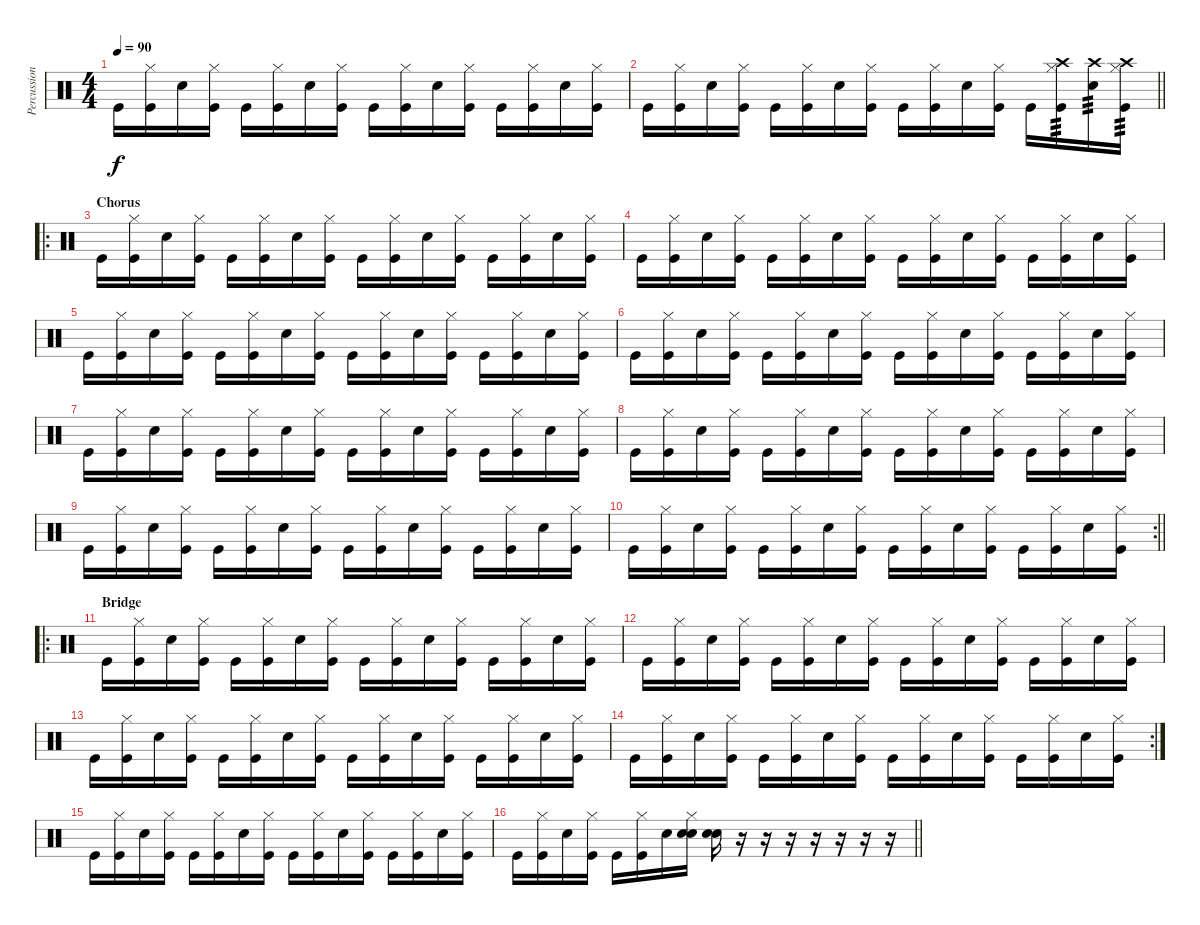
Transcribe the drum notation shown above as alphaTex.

\track ("Percussion" "Percussion") {instrument percussion}
\staff {score}
\articulation defaults
\ts (4 4)
\tempo 90
\clef neutral
\ks c "Kick (hit)".16{dy f}
("Hi-Hat (closed)" "Kick (hit)").16 "Snare (hit) 2".16 ("Hi-Hat (closed)" "Kick (hit)").16 "Kick (hit)".16 ("Hi-Hat (closed)" "Kick (hit)").16 "Snare (hit) 2".16 ("Hi-Hat (closed)" "Kick (hit)").16 "Kick (hit)".16 ("Hi-Hat (closed)" "Kick (hit)").16 "Snare (hit) 2".16 ("Hi-Hat (closed)" "Kick (hit)").16 "Kick (hit)".16 ("Hi-Hat (closed)" "Kick (hit)").16 "Snare (hit) 2".16 ("Hi-Hat (closed)" "Kick (hit)").16 |
\barLineRight lightlight "Kick (hit)".16
("Hi-Hat (closed)" "Kick (hit)").16 "Snare (hit) 2".16 ("Hi-Hat (closed)" "Kick (hit)").16 "Kick (hit)".16 ("Hi-Hat (closed)" "Kick (hit)").16 "Snare (hit) 2".16 ("Hi-Hat (closed)" "Kick (hit)").16 "Kick (hit)".16 ("Hi-Hat (closed)" "Kick (hit)").16 "Snare (hit) 2".16 ("Hi-Hat (closed)" "Kick (hit)").16 "Kick (hit)".16 ("Crash high (hit)" "Hi-Hat (closed)" "Kick (hit)").16{tp 3} ("Crash high (hit)" "Snare (hit) 2").16{tp 3} ("Crash high (hit)" "Hi-Hat (closed)" "Kick (hit)").16{tp 3} |
\ro
\section ("" "Chorus")
"Kick (hit)".16 ("Hi-Hat (closed)" "Kick (hit)").16 "Snare (hit) 2".16 ("Hi-Hat (closed)" "Kick (hit)").16 "Kick (hit)".16 ("Hi-Hat (closed)" "Kick (hit)").16 "Snare (hit) 2".16 ("Hi-Hat (closed)" "Kick (hit)").16 "Kick (hit)".16 ("Hi-Hat (closed)" "Kick (hit)").16 "Snare (hit) 2".16 ("Hi-Hat (closed)" "Kick (hit)").16 "Kick (hit)".16 ("Hi-Hat (closed)" "Kick (hit)").16 "Snare (hit) 2".16 ("Hi-Hat (closed)" "Kick (hit)").16 |
"Kick (hit)".16 ("Hi-Hat (closed)" "Kick (hit)").16 "Snare (hit) 2".16 ("Hi-Hat (closed)" "Kick (hit)").16 "Kick (hit)".16 ("Hi-Hat (closed)" "Kick (hit)").16 "Snare (hit) 2".16 ("Hi-Hat (closed)" "Kick (hit)").16 "Kick (hit)".16 ("Hi-Hat (closed)" "Kick (hit)").16 "Snare (hit) 2".16 ("Hi-Hat (closed)" "Kick (hit)").16 "Kick (hit)".16 ("Hi-Hat (closed)" "Kick (hit)").16 "Snare (hit) 2".16 ("Hi-Hat (closed)" "Kick (hit)").16 |
"Kick (hit)".16 ("Hi-Hat (closed)" "Kick (hit)").16 "Snare (hit) 2".16 ("Hi-Hat (closed)" "Kick (hit)").16 "Kick (hit)".16 ("Hi-Hat (closed)" "Kick (hit)").16 "Snare (hit) 2".16 ("Hi-Hat (closed)" "Kick (hit)").16 "Kick (hit)".16 ("Hi-Hat (closed)" "Kick (hit)").16 "Snare (hit) 2".16 ("Hi-Hat (closed)" "Kick (hit)").16 "Kick (hit)".16 ("Hi-Hat (closed)" "Kick (hit)").16 "Snare (hit) 2".16 ("Hi-Hat (closed)" "Kick (hit)").16 |
"Kick (hit)".16 ("Hi-Hat (closed)" "Kick (hit)").16 "Snare (hit) 2".16 ("Hi-Hat (closed)" "Kick (hit)").16 "Kick (hit)".16 ("Hi-Hat (closed)" "Kick (hit)").16 "Snare (hit) 2".16 ("Hi-Hat (closed)" "Kick (hit)").16 "Kick (hit)".16 ("Hi-Hat (closed)" "Kick (hit)").16 "Snare (hit) 2".16 ("Hi-Hat (closed)" "Kick (hit)").16 "Kick (hit)".16 ("Hi-Hat (closed)" "Kick (hit)").16 "Snare (hit) 2".16 ("Hi-Hat (closed)" "Kick (hit)").16 |
"Kick (hit)".16 ("Hi-Hat (closed)" "Kick (hit)").16 "Snare (hit) 2".16 ("Hi-Hat (closed)" "Kick (hit)").16 "Kick (hit)".16 ("Hi-Hat (closed)" "Kick (hit)").16 "Snare (hit) 2".16 ("Hi-Hat (closed)" "Kick (hit)").16 "Kick (hit)".16 ("Hi-Hat (closed)" "Kick (hit)").16 "Snare (hit) 2".16 ("Hi-Hat (closed)" "Kick (hit)").16 "Kick (hit)".16 ("Hi-Hat (closed)" "Kick (hit)").16 "Snare (hit) 2".16 ("Hi-Hat (closed)" "Kick (hit)").16 |
"Kick (hit)".16 ("Hi-Hat (closed)" "Kick (hit)").16 "Snare (hit) 2".16 ("Hi-Hat (closed)" "Kick (hit)").16 "Kick (hit)".16 ("Hi-Hat (closed)" "Kick (hit)").16 "Snare (hit) 2".16 ("Hi-Hat (closed)" "Kick (hit)").16 "Kick (hit)".16 ("Hi-Hat (closed)" "Kick (hit)").16 "Snare (hit) 2".16 ("Hi-Hat (closed)" "Kick (hit)").16 "Kick (hit)".16 ("Hi-Hat (closed)" "Kick (hit)").16 "Snare (hit) 2".16 ("Hi-Hat (closed)" "Kick (hit)").16 |
"Kick (hit)".16 ("Hi-Hat (closed)" "Kick (hit)").16 "Snare (hit) 2".16 ("Hi-Hat (closed)" "Kick (hit)").16 "Kick (hit)".16 ("Hi-Hat (closed)" "Kick (hit)").16 "Snare (hit) 2".16 ("Hi-Hat (closed)" "Kick (hit)").16 "Kick (hit)".16 ("Hi-Hat (closed)" "Kick (hit)").16 "Snare (hit) 2".16 ("Hi-Hat (closed)" "Kick (hit)").16 "Kick (hit)".16 ("Hi-Hat (closed)" "Kick (hit)").16 "Snare (hit) 2".16 ("Hi-Hat (closed)" "Kick (hit)").16 |
\rc 2
\barLineRight lightlight "Kick (hit)".16
("Hi-Hat (closed)" "Kick (hit)").16 "Snare (hit) 2".16 ("Hi-Hat (closed)" "Kick (hit)").16 "Kick (hit)".16 ("Hi-Hat (closed)" "Kick (hit)").16 "Snare (hit) 2".16 ("Hi-Hat (closed)" "Kick (hit)").16 "Kick (hit)".16 ("Hi-Hat (closed)" "Kick (hit)").16 "Snare (hit) 2".16 ("Hi-Hat (closed)" "Kick (hit)").16 "Kick (hit)".16 ("Hi-Hat (closed)" "Kick (hit)").16 "Snare (hit) 2".16 ("Hi-Hat (closed)" "Kick (hit)").16 |
\ro
\section ("" "Bridge")
"Kick (hit)".16 ("Hi-Hat (closed)" "Kick (hit)").16 "Snare (hit) 2".16 ("Hi-Hat (closed)" "Kick (hit)").16 "Kick (hit)".16 ("Hi-Hat (closed)" "Kick (hit)").16 "Snare (hit) 2".16 ("Hi-Hat (closed)" "Kick (hit)").16 "Kick (hit)".16 ("Hi-Hat (closed)" "Kick (hit)").16 "Snare (hit) 2".16 ("Hi-Hat (closed)" "Kick (hit)").16 "Kick (hit)".16 ("Hi-Hat (closed)" "Kick (hit)").16 "Snare (hit) 2".16 ("Hi-Hat (closed)" "Kick (hit)").16 |
"Kick (hit)".16 ("Hi-Hat (closed)" "Kick (hit)").16 "Snare (hit) 2".16 ("Hi-Hat (closed)" "Kick (hit)").16 "Kick (hit)".16 ("Hi-Hat (closed)" "Kick (hit)").16 "Snare (hit) 2".16 ("Hi-Hat (closed)" "Kick (hit)").16 "Kick (hit)".16 ("Hi-Hat (closed)" "Kick (hit)").16 "Snare (hit) 2".16 ("Hi-Hat (closed)" "Kick (hit)").16 "Kick (hit)".16 ("Hi-Hat (closed)" "Kick (hit)").16 "Snare (hit) 2".16 ("Hi-Hat (closed)" "Kick (hit)").16 |
"Kick (hit)".16 ("Hi-Hat (closed)" "Kick (hit)").16 "Snare (hit) 2".16 ("Hi-Hat (closed)" "Kick (hit)").16 "Kick (hit)".16 ("Hi-Hat (closed)" "Kick (hit)").16 "Snare (hit) 2".16 ("Hi-Hat (closed)" "Kick (hit)").16 "Kick (hit)".16 ("Hi-Hat (closed)" "Kick (hit)").16 "Snare (hit) 2".16 ("Hi-Hat (closed)" "Kick (hit)").16 "Kick (hit)".16 ("Hi-Hat (closed)" "Kick (hit)").16 "Snare (hit) 2".16 ("Hi-Hat (closed)" "Kick (hit)").16 |
\rc 2 "Kick (hit)".16
("Hi-Hat (closed)" "Kick (hit)").16 "Snare (hit) 2".16 ("Hi-Hat (closed)" "Kick (hit)").16 "Kick (hit)".16 ("Hi-Hat (closed)" "Kick (hit)").16 "Snare (hit) 2".16 ("Hi-Hat (closed)" "Kick (hit)").16 "Kick (hit)".16 ("Hi-Hat (closed)" "Kick (hit)").16 "Snare (hit) 2".16 ("Hi-Hat (closed)" "Kick (hit)").16 "Kick (hit)".16 ("Hi-Hat (closed)" "Kick (hit)").16 "Snare (hit) 2".16 ("Hi-Hat (closed)" "Kick (hit)").16 |
"Kick (hit)".16 ("Hi-Hat (closed)" "Kick (hit)").16 "Snare (hit) 2".16 ("Hi-Hat (closed)" "Kick (hit)").16 "Kick (hit)".16 ("Hi-Hat (closed)" "Kick (hit)").16 "Snare (hit) 2".16 ("Hi-Hat (closed)" "Kick (hit)").16 "Kick (hit)".16 ("Hi-Hat (closed)" "Kick (hit)").16 "Snare (hit) 2".16 ("Hi-Hat (closed)" "Kick (hit)").16 "Kick (hit)".16 ("Hi-Hat (closed)" "Kick (hit)").16 "Snare (hit) 2".16 ("Hi-Hat (closed)" "Kick (hit)").16 |
\barLineRight lightlight "Kick (hit)".16
("Hi-Hat (closed)" "Kick (hit)").16 "Snare (hit) 2".16 ("Hi-Hat (closed)" "Kick (hit)").16 "Kick (hit)".16 ("Hi-Hat (closed)" "Kick (hit)").16 "Snare (hit) 2".16 ("Hi-Hat (closed)" "Snare (hit) 2" "Snare (hit) 2").16 ("Snare (hit) 2" "Snare (hit) 2").16 r.16 r.16 r.16 r.16 r.16 r.16 r.16
